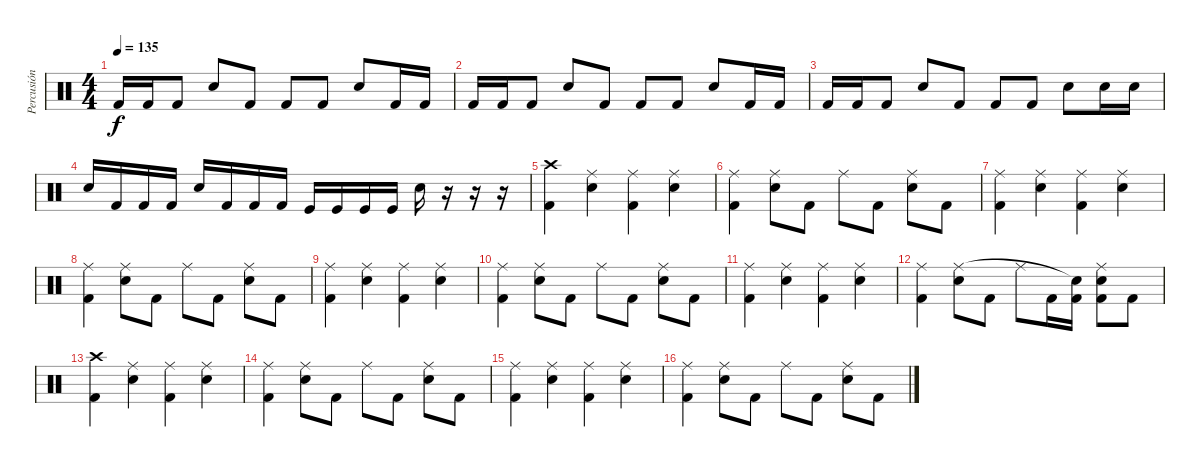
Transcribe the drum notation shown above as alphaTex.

\track ("Percusión" "Percusión") {instrument percussion}
\staff {score}
\articulation defaults
\ts (4 4)
\tempo 135
\clef neutral
\ks c "Kick (hit) 2".16{dy f} "Kick (hit) 2".16 "Kick (hit) 2".8 "Snare (hit) 2".8 "Kick (hit) 2".8 "Kick (hit) 2".8 "Kick (hit) 2".8 "Snare (hit) 2".8 "Kick (hit) 2".16 "Kick (hit) 2".16
|
"Kick (hit) 2".16 "Kick (hit) 2".16 "Kick (hit) 2".8 "Snare (hit) 2".8 "Kick (hit) 2".8 "Kick (hit) 2".8 "Kick (hit) 2".8 "Snare (hit) 2".8 "Kick (hit) 2".16 "Kick (hit) 2".16 |
"Kick (hit) 2".16 "Kick (hit) 2".16 "Kick (hit) 2".8 "Snare (hit) 2".8 "Kick (hit) 2".8 "Kick (hit) 2".8 "Kick (hit) 2".8 "Snare (hit) 2".8 "Snare (hit) 2".16 "Snare (hit) 2".16 |
"Snare (hit) 2".16 "Kick (hit) 2".16 "Kick (hit) 2".16 "Kick (hit) 2".16 "Snare (hit) 2".16 "Kick (hit) 2".16 "Kick (hit) 2".16 "Kick (hit) 2".16 "Kick (hit)".16 "Kick (hit)".16 "Kick (hit)".16 "Kick (hit)".16 "Snare (hit) 2".16 r.16 r.16 r.16 |
("Kick (hit) 2" "Crash high (hit)").4 ("Snare (hit) 2" "Ride (middle)").4 ("Kick (hit) 2" "Ride (middle)").4 ("Snare (hit) 2" "Ride (middle)").4 |
("Kick (hit) 2" "Ride (middle)").4 ("Snare (hit) 2" "Ride (middle)").8 "Kick (hit) 2".8 "Ride (middle)".8 "Kick (hit) 2".8 ("Snare (hit) 2" "Ride (middle)").8 "Kick (hit) 2".8 |
("Kick (hit) 2" "Ride (middle)").4 ("Snare (hit) 2" "Ride (middle)").4 ("Kick (hit) 2" "Ride (middle)").4 ("Snare (hit) 2" "Ride (middle)").4 |
("Kick (hit) 2" "Ride (middle)").4 ("Snare (hit) 2" "Ride (middle)").8 "Kick (hit) 2".8 "Ride (middle)".8 "Kick (hit) 2".8 ("Snare (hit) 2" "Ride (middle)").8 "Kick (hit) 2".8 |
("Kick (hit) 2" "Ride (middle)").4 ("Snare (hit) 2" "Ride (middle)").4 ("Kick (hit) 2" "Ride (middle)").4 ("Snare (hit) 2" "Ride (middle)").4 |
("Kick (hit) 2" "Ride (middle)").4 ("Snare (hit) 2" "Ride (middle)").8 "Kick (hit) 2".8 "Ride (middle)".8 "Kick (hit) 2".8 ("Snare (hit) 2" "Ride (middle)").8 "Kick (hit) 2".8 |
("Kick (hit) 2" "Ride (middle)").4 ("Snare (hit) 2" "Ride (middle)").4 ("Kick (hit) 2" "Ride (middle)").4 ("Snare (hit) 2" "Ride (middle)").4 |
("Kick (hit) 2" "Ride (middle)").4 ("Snare (hit) 2" "Ride (middle)").8 "Kick (hit) 2".8 "Ride (middle)".8 "Kick (hit) 2".16 ("Kick (hit) 2" "Snare (hit) 2"{t}).16 ("Kick (hit) 2" "Snare (hit) 2" "Ride (middle)").8 "Kick (hit) 2".8 |
("Kick (hit) 2" "Crash high (hit)").4 ("Snare (hit) 2" "Ride (middle)").4 ("Kick (hit) 2" "Ride (middle)").4 ("Snare (hit) 2" "Ride (middle)").4 |
("Kick (hit) 2" "Ride (middle)").4 ("Snare (hit) 2" "Ride (middle)").8 "Kick (hit) 2".8 "Ride (middle)".8 "Kick (hit) 2".8 ("Snare (hit) 2" "Ride (middle)").8 "Kick (hit) 2".8 |
("Kick (hit) 2" "Ride (middle)").4 ("Snare (hit) 2" "Ride (middle)").4 ("Kick (hit) 2" "Ride (middle)").4 ("Snare (hit) 2" "Ride (middle)").4 |
("Kick (hit) 2" "Ride (middle)").4 ("Snare (hit) 2" "Ride (middle)").8 "Kick (hit) 2".8 "Ride (middle)".8 "Kick (hit) 2".8 ("Snare (hit) 2" "Ride (middle)").8 "Kick (hit) 2".8
